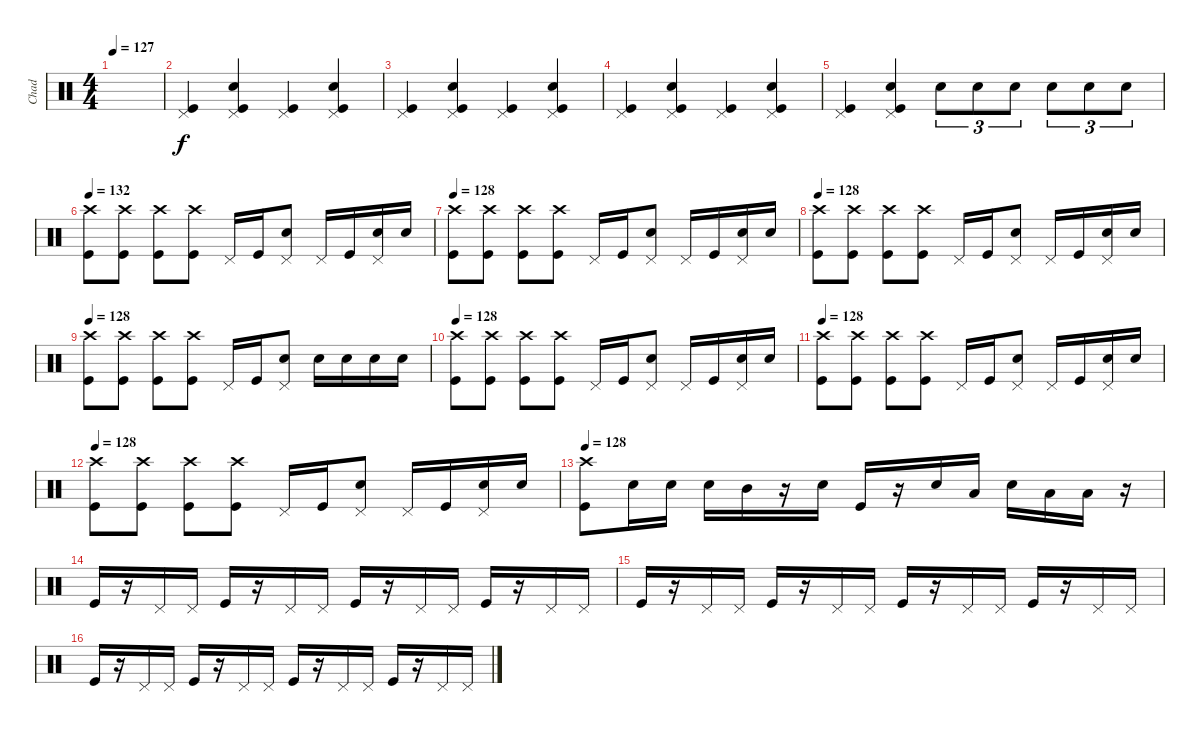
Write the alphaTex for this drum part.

\track ("Chad" "Chad") {instrument percussion}
\staff {score}
\articulation defaults
\ts (4 4)
\tempo 127
\clef neutral
\ks c
|
("Pedal Hi-Hat (hit)" "Kick (hit)").4 ("Pedal Hi-Hat (hit)" "Electric Snare (hit)" "Kick (hit)").4 ("Pedal Hi-Hat (hit)" "Kick (hit)").4 ("Pedal Hi-Hat (hit)" "Electric Snare (hit)" "Kick (hit)").4 |
("Pedal Hi-Hat (hit)" "Kick (hit)").4 ("Pedal Hi-Hat (hit)" "Electric Snare (hit)" "Kick (hit)").4 ("Pedal Hi-Hat (hit)" "Kick (hit)").4 ("Pedal Hi-Hat (hit)" "Electric Snare (hit)" "Kick (hit)").4 |
("Pedal Hi-Hat (hit)" "Kick (hit)").4 ("Pedal Hi-Hat (hit)" "Electric Snare (hit)" "Kick (hit)").4 ("Pedal Hi-Hat (hit)" "Kick (hit)").4 ("Pedal Hi-Hat (hit)" "Electric Snare (hit)" "Kick (hit)").4 |
("Pedal Hi-Hat (hit)" "Kick (hit)").4 ("Pedal Hi-Hat (hit)" "Electric Snare (hit)" "Kick (hit)").4 "Electric Snare (hit)".8{tu (3 2)} "Electric Snare (hit)".8{tu (3 2)} "Electric Snare (hit)".8{tu (3 2)} "Electric Snare (hit)".8{tu (3 2)} "Electric Snare (hit)".8{tu (3 2)} "Electric Snare (hit)".8{tu (3 2)} |
\tempo 132
("Crash high (hit)" "Kick (hit)").8 ("Crash high (hit)" "Kick (hit)").8 ("Crash high (hit)" "Kick (hit)").8 ("Crash high (hit)" "Kick (hit)").8 "Pedal Hi-Hat (hit)".16 "Kick (hit)".16 ("Electric Snare (hit)" "Pedal Hi-Hat (hit)").8 "Pedal Hi-Hat (hit)".16 "Kick (hit)".16 ("Electric Snare (hit)" "Pedal Hi-Hat (hit)").16 "Electric Snare (hit)".16 |
\tempo 128
("Crash high (hit)" "Kick (hit)").8 ("Crash high (hit)" "Kick (hit)").8 ("Crash high (hit)" "Kick (hit)").8 ("Crash high (hit)" "Kick (hit)").8 "Pedal Hi-Hat (hit)".16 "Kick (hit)".16 ("Electric Snare (hit)" "Pedal Hi-Hat (hit)").8 "Pedal Hi-Hat (hit)".16 "Kick (hit)".16 ("Electric Snare (hit)" "Pedal Hi-Hat (hit)").16 "Electric Snare (hit)".16 |
\tempo 128
("Crash high (hit)" "Kick (hit)").8 ("Crash high (hit)" "Kick (hit)").8 ("Crash high (hit)" "Kick (hit)").8 ("Crash high (hit)" "Kick (hit)").8 "Pedal Hi-Hat (hit)".16 "Kick (hit)".16 ("Electric Snare (hit)" "Pedal Hi-Hat (hit)").8 "Pedal Hi-Hat (hit)".16 "Kick (hit)".16 ("Electric Snare (hit)" "Pedal Hi-Hat (hit)").16 "Electric Snare (hit)".16 |
\tempo 128
("Crash high (hit)" "Kick (hit)").8 ("Crash high (hit)" "Kick (hit)").8 ("Crash high (hit)" "Kick (hit)").8 ("Crash high (hit)" "Kick (hit)").8 "Pedal Hi-Hat (hit)".16 "Kick (hit)".16 ("Electric Snare (hit)" "Pedal Hi-Hat (hit)").8 "Electric Snare (hit)".16 "Electric Snare (hit)".16 "Electric Snare (hit)".16 "Electric Snare (hit)".16 |
\tempo 128
("Crash high (hit)" "Kick (hit)").8 ("Crash high (hit)" "Kick (hit)").8 ("Crash high (hit)" "Kick (hit)").8 ("Crash high (hit)" "Kick (hit)").8 "Pedal Hi-Hat (hit)".16 "Kick (hit)".16 ("Electric Snare (hit)" "Pedal Hi-Hat (hit)").8 "Pedal Hi-Hat (hit)".16 "Kick (hit)".16 ("Electric Snare (hit)" "Pedal Hi-Hat (hit)").16 "Electric Snare (hit)".16 |
\tempo 128
("Crash high (hit)" "Kick (hit)").8 ("Crash high (hit)" "Kick (hit)").8 ("Crash high (hit)" "Kick (hit)").8 ("Crash high (hit)" "Kick (hit)").8 "Pedal Hi-Hat (hit)".16 "Kick (hit)".16 ("Electric Snare (hit)" "Pedal Hi-Hat (hit)").8 "Pedal Hi-Hat (hit)".16 "Kick (hit)".16 ("Electric Snare (hit)" "Pedal Hi-Hat (hit)").16 "Electric Snare (hit)".16 |
\tempo 128
("Crash high (hit)" "Kick (hit)").8 ("Crash high (hit)" "Kick (hit)").8 ("Crash high (hit)" "Kick (hit)").8 ("Crash high (hit)" "Kick (hit)").8 "Pedal Hi-Hat (hit)".16 "Kick (hit)".16 ("Electric Snare (hit)" "Pedal Hi-Hat (hit)").8 "Pedal Hi-Hat (hit)".16 "Kick (hit)".16 ("Electric Snare (hit)" "Pedal Hi-Hat (hit)").16 "Electric Snare (hit)".16 |
\tempo 128
("Crash high (hit)" "Kick (hit)").8 "Electric Snare (hit)".16 "Electric Snare (hit)".16 "Electric Snare (hit)".16 "Mid Tom (hit)".16 r.16 "Electric Snare (hit)".16 "Kick (hit)".16 r.16 "Electric Snare (hit)".16 "Low Tom (hit)".16 "Electric Snare (hit)".16 "Low Tom (hit)".16 "Low Tom (hit)".16 r.16 |
"Kick (hit)".16 r.16 "Pedal Hi-Hat (hit)".16 "Pedal Hi-Hat (hit)".16 "Kick (hit)".16 r.16 "Pedal Hi-Hat (hit)".16 "Pedal Hi-Hat (hit)".16 "Kick (hit)".16 r.16 "Pedal Hi-Hat (hit)".16 "Pedal Hi-Hat (hit)".16 "Kick (hit)".16 r.16 "Pedal Hi-Hat (hit)".16 "Pedal Hi-Hat (hit)".16 |
"Kick (hit)".16 r.16 "Pedal Hi-Hat (hit)".16 "Pedal Hi-Hat (hit)".16 "Kick (hit)".16 r.16 "Pedal Hi-Hat (hit)".16 "Pedal Hi-Hat (hit)".16 "Kick (hit)".16 r.16 "Pedal Hi-Hat (hit)".16 "Pedal Hi-Hat (hit)".16 "Kick (hit)".16 r.16 "Pedal Hi-Hat (hit)".16 "Pedal Hi-Hat (hit)".16 |
"Kick (hit)".16 r.16 "Pedal Hi-Hat (hit)".16 "Pedal Hi-Hat (hit)".16 "Kick (hit)".16 r.16 "Pedal Hi-Hat (hit)".16 "Pedal Hi-Hat (hit)".16 "Kick (hit)".16 r.16 "Pedal Hi-Hat (hit)".16 "Pedal Hi-Hat (hit)".16 "Kick (hit)".16 r.16 "Pedal Hi-Hat (hit)".16 "Pedal Hi-Hat (hit)".16
